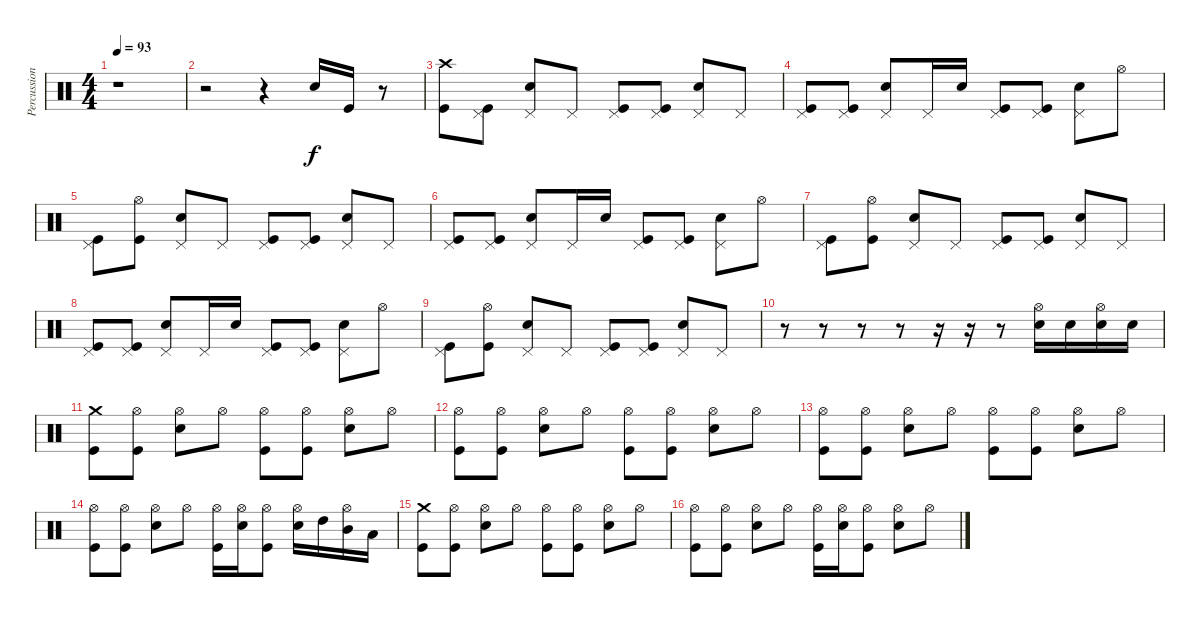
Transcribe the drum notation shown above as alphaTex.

\track ("Percussions" "Percussion") {instrument percussion}
\staff {score}
\articulation defaults
\ts (4 4)
\tempo 93
\clef neutral
\ks c
r.1{dy f} |
r.2 r.4 "Snare (hit) 2".16 "Kick (hit)".16 r.8 |
("Crash high (hit)" "Kick (hit)").8 ("Pedal Hi-Hat (hit)" "Kick (hit)").8 ("Pedal Hi-Hat (hit)" "Snare (hit) 2").8 "Pedal Hi-Hat (hit)".8 ("Pedal Hi-Hat (hit)" "Kick (hit)").8 ("Pedal Hi-Hat (hit)" "Kick (hit)").8 ("Pedal Hi-Hat (hit)" "Snare (hit) 2").8 "Pedal Hi-Hat (hit)".8 |
("Pedal Hi-Hat (hit)" "Kick (hit)").8 ("Pedal Hi-Hat (hit)" "Kick (hit)").8 ("Pedal Hi-Hat (hit)" "Snare (hit) 2").8 "Pedal Hi-Hat (hit)".16 "Snare (hit) 2".16 ("Pedal Hi-Hat (hit)" "Kick (hit)").8 ("Pedal Hi-Hat (hit)" "Kick (hit)").8 ("Pedal Hi-Hat (hit)" "Snare (hit) 2").8 "Hi-Hat (open)".8 |
("Pedal Hi-Hat (hit)" "Kick (hit)").8 ("Hi-Hat (open)" "Kick (hit)").8 ("Pedal Hi-Hat (hit)" "Snare (hit) 2").8 "Pedal Hi-Hat (hit)".8 ("Pedal Hi-Hat (hit)" "Kick (hit)").8 ("Pedal Hi-Hat (hit)" "Kick (hit)").8 ("Pedal Hi-Hat (hit)" "Snare (hit) 2").8 "Pedal Hi-Hat (hit)".8 |
("Pedal Hi-Hat (hit)" "Kick (hit)").8 ("Pedal Hi-Hat (hit)" "Kick (hit)").8 ("Pedal Hi-Hat (hit)" "Snare (hit) 2").8 "Pedal Hi-Hat (hit)".16 "Snare (hit) 2".16 ("Pedal Hi-Hat (hit)" "Kick (hit)").8 ("Pedal Hi-Hat (hit)" "Kick (hit)").8 ("Pedal Hi-Hat (hit)" "Snare (hit) 2").8 "Hi-Hat (open)".8 |
("Pedal Hi-Hat (hit)" "Kick (hit)").8 ("Hi-Hat (open)" "Kick (hit)").8 ("Pedal Hi-Hat (hit)" "Snare (hit) 2").8 "Pedal Hi-Hat (hit)".8 ("Pedal Hi-Hat (hit)" "Kick (hit)").8 ("Pedal Hi-Hat (hit)" "Kick (hit)").8 ("Pedal Hi-Hat (hit)" "Snare (hit) 2").8 "Pedal Hi-Hat (hit)".8 |
("Pedal Hi-Hat (hit)" "Kick (hit)").8 ("Pedal Hi-Hat (hit)" "Kick (hit)").8 ("Pedal Hi-Hat (hit)" "Snare (hit) 2").8 "Pedal Hi-Hat (hit)".16 "Snare (hit) 2".16 ("Pedal Hi-Hat (hit)" "Kick (hit)").8 ("Pedal Hi-Hat (hit)" "Kick (hit)").8 ("Pedal Hi-Hat (hit)" "Snare (hit) 2").8 "Hi-Hat (open)".8 |
("Pedal Hi-Hat (hit)" "Kick (hit)").8 ("Hi-Hat (open)" "Kick (hit)").8 ("Pedal Hi-Hat (hit)" "Snare (hit) 2").8 "Pedal Hi-Hat (hit)".8 ("Pedal Hi-Hat (hit)" "Kick (hit)").8 ("Pedal Hi-Hat (hit)" "Kick (hit)").8 ("Pedal Hi-Hat (hit)" "Snare (hit) 2").8 "Pedal Hi-Hat (hit)".8 |
r.8 r.8 r.8 r.8 r.16 r.16 r.8 ("Hi-Hat (open)" "Snare (hit) 2").16 "Snare (hit) 2".16 ("Hi-Hat (open)" "Snare (hit) 2").16 "Snare (hit) 2".16 |
("Crash medium (hit)" "Kick (hit)").8 ("Hi-Hat (open)" "Kick (hit)").8 ("Hi-Hat (open)" "Snare (hit) 2").8 "Hi-Hat (open)".8 ("Hi-Hat (open)" "Kick (hit)").8 ("Hi-Hat (open)" "Kick (hit)").8 ("Hi-Hat (open)" "Snare (hit) 2").8 "Hi-Hat (open)".8 |
("Hi-Hat (open)" "Kick (hit)").8 ("Hi-Hat (open)" "Kick (hit)").8 ("Hi-Hat (open)" "Snare (hit) 2").8 "Hi-Hat (open)".8 ("Hi-Hat (open)" "Kick (hit)").8 ("Hi-Hat (open)" "Kick (hit)").8 ("Hi-Hat (open)" "Snare (hit) 2").8 "Hi-Hat (open)".8 |
("Hi-Hat (open)" "Kick (hit)").8 ("Hi-Hat (open)" "Kick (hit)").8 ("Hi-Hat (open)" "Snare (hit) 2").8 "Hi-Hat (open)".8 ("Hi-Hat (open)" "Kick (hit)").8 ("Hi-Hat (open)" "Kick (hit)").8 ("Hi-Hat (open)" "Snare (hit) 2").8 "Hi-Hat (open)".8 |
("Hi-Hat (open)" "Kick (hit)").8 ("Hi-Hat (open)" "Kick (hit)").8 ("Hi-Hat (open)" "Snare (hit) 2").8 "Hi-Hat (open)".8 ("Hi-Hat (open)" "Kick (hit)").16 ("Hi-Hat (open)" "Snare (hit) 2").16 ("Hi-Hat (open)" "Kick (hit)").8 ("Hi-Hat (open)" "Snare (hit) 2").16 "High Tom (hit)".16 ("Hi-Hat (open)" "Mid Tom (hit)").16 "Low Tom (hit)".16 |
("Crash medium (hit)" "Kick (hit)").8 ("Hi-Hat (open)" "Kick (hit)").8 ("Hi-Hat (open)" "Snare (hit) 2").8 "Hi-Hat (open)".8 ("Hi-Hat (open)" "Kick (hit)").8 ("Hi-Hat (open)" "Kick (hit)").8 ("Hi-Hat (open)" "Snare (hit) 2").8 "Hi-Hat (open)".8 |
("Hi-Hat (open)" "Kick (hit)").8 ("Hi-Hat (open)" "Kick (hit)").8 ("Hi-Hat (open)" "Snare (hit) 2").8 "Hi-Hat (open)".8 ("Hi-Hat (open)" "Kick (hit)").16 ("Hi-Hat (open)" "Snare (hit) 2").16 ("Hi-Hat (open)" "Kick (hit)").8 ("Hi-Hat (open)" "Snare (hit) 2").8 "Hi-Hat (open)".8
